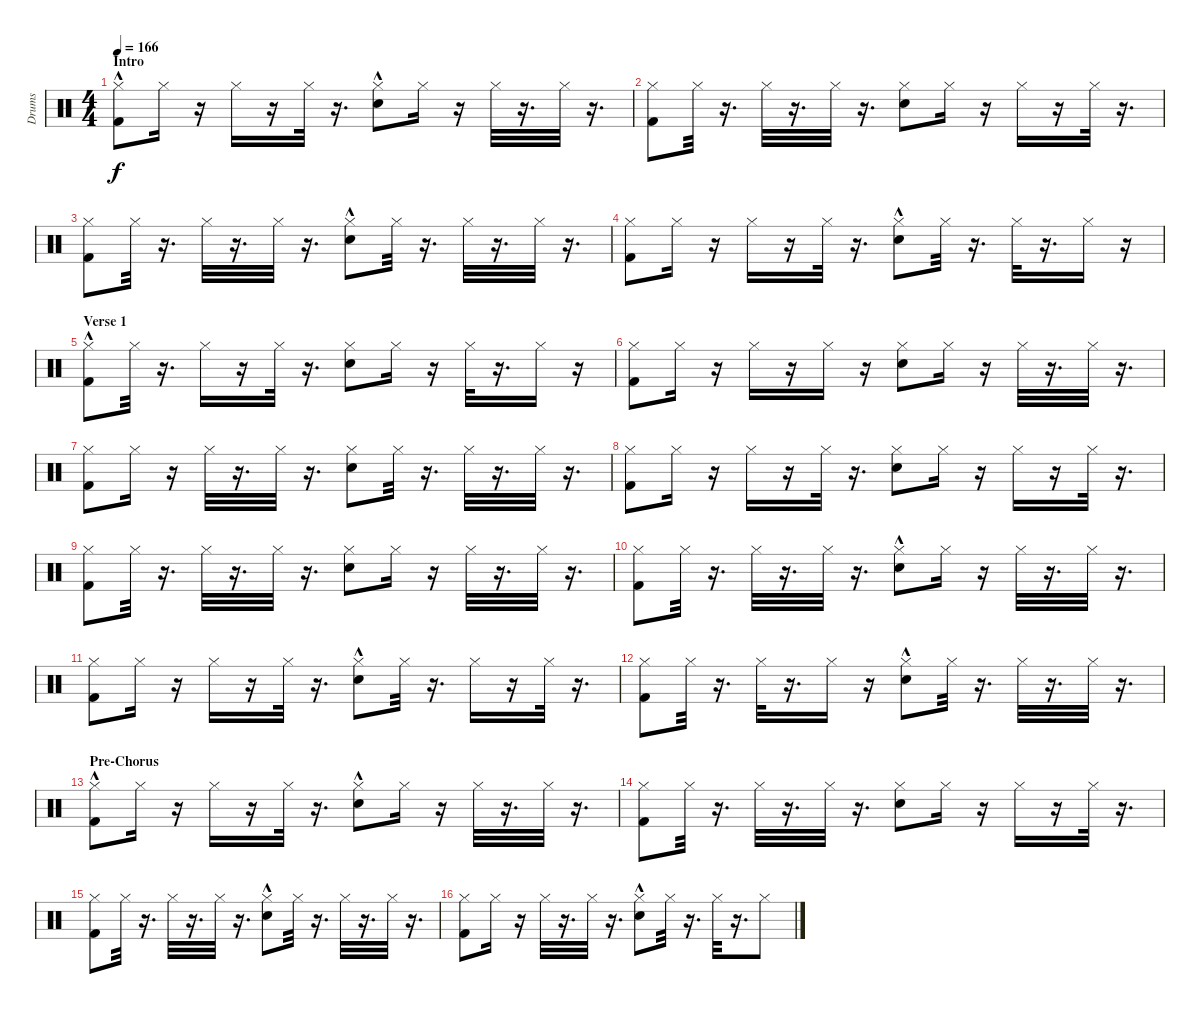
\track ("Drums" "Drums") {instrument percussion}
\staff {score}
\articulation defaults
\ts (4 4)
\section ("" "Intro")
\tempo 166
\clef neutral
\ks c
("Kick (hit) 2"{hac} "Hi-Hat (closed)").8{dy f} "Hi-Hat (closed)".16 r.16 "Hi-Hat (closed)".16 r.16 "Hi-Hat (closed)".32 r.16{d} ("Hi-Hat (closed)" "Snare (hit) 2"{hac}).8 "Hi-Hat (closed)".16 r.16 "Hi-Hat (closed)".32 r.16{d} "Hi-Hat (closed)".32 r.16{d} |
("Kick (hit) 2" "Hi-Hat (closed)").8 "Hi-Hat (closed)".32 r.16{d} "Hi-Hat (closed)".32 r.16{d} "Hi-Hat (closed)".32 r.16{d} ("Hi-Hat (closed)" "Snare (hit) 2").8 "Hi-Hat (closed)".16 r.16 "Hi-Hat (closed)".16 r.16 "Hi-Hat (closed)".32 r.16{d} |
("Kick (hit) 2" "Hi-Hat (closed)").8 "Hi-Hat (closed)".32 r.16{d} "Hi-Hat (closed)".32 r.16{d} "Hi-Hat (closed)".32 r.16{d} ("Hi-Hat (closed)" "Snare (hit) 2"{hac}).8 "Hi-Hat (closed)".32 r.16{d} "Hi-Hat (closed)".32 r.16{d} "Hi-Hat (closed)".32 r.16{d} |
("Kick (hit) 2" "Hi-Hat (closed)").8 "Hi-Hat (closed)".16 r.16 "Hi-Hat (closed)".16 r.16 "Hi-Hat (closed)".32 r.16{d} ("Hi-Hat (closed)" "Snare (hit) 2"{hac}).8 "Hi-Hat (closed)".32 r.16{d} "Hi-Hat (closed)".32 r.16{d} "Hi-Hat (closed)".16 r.16 |
\section ("" "Verse 1")
("Kick (hit) 2"{hac} "Hi-Hat (closed)").8 "Hi-Hat (closed)".32 r.16{d} "Hi-Hat (closed)".16 r.16 "Hi-Hat (closed)".32 r.16{d} ("Hi-Hat (closed)" "Snare (hit) 2").8 "Hi-Hat (closed)".16 r.16 "Hi-Hat (closed)".32 r.16{d} "Hi-Hat (closed)".16 r.16 |
("Kick (hit) 2" "Hi-Hat (closed)").8 "Hi-Hat (closed)".16 r.16 "Hi-Hat (closed)".16 r.16 "Hi-Hat (closed)".16 r.16 ("Hi-Hat (closed)" "Snare (hit) 2").8 "Hi-Hat (closed)".16 r.16 "Hi-Hat (closed)".32 r.16{d} "Hi-Hat (closed)".32 r.16{d} |
("Kick (hit) 2" "Hi-Hat (closed)").8 "Hi-Hat (closed)".16 r.16 "Hi-Hat (closed)".32 r.16{d} "Hi-Hat (closed)".32 r.16{d} ("Hi-Hat (closed)" "Snare (hit) 2").8 "Hi-Hat (closed)".32 r.16{d} "Hi-Hat (closed)".32 r.16{d} "Hi-Hat (closed)".32 r.16{d} |
("Kick (hit) 2" "Hi-Hat (closed)").8 "Hi-Hat (closed)".16 r.16 "Hi-Hat (closed)".16 r.16 "Hi-Hat (closed)".32 r.16{d} ("Hi-Hat (closed)" "Snare (hit) 2").8 "Hi-Hat (closed)".16 r.16 "Hi-Hat (closed)".16 r.16 "Hi-Hat (closed)".32 r.16{d} |
("Kick (hit) 2" "Hi-Hat (closed)").8 "Hi-Hat (closed)".32 r.16{d} "Hi-Hat (closed)".32 r.16{d} "Hi-Hat (closed)".32 r.16{d} ("Hi-Hat (closed)" "Snare (hit) 2").8 "Hi-Hat (closed)".16 r.16 "Hi-Hat (closed)".32 r.16{d} "Hi-Hat (closed)".32 r.16{d} |
("Kick (hit) 2" "Hi-Hat (closed)").8 "Hi-Hat (closed)".32 r.16{d} "Hi-Hat (closed)".32 r.16{d} "Hi-Hat (closed)".32 r.16{d} ("Hi-Hat (closed)" "Snare (hit) 2"{hac}).8 "Hi-Hat (closed)".16 r.16 "Hi-Hat (closed)".32 r.16{d} "Hi-Hat (closed)".32 r.16{d} |
("Kick (hit) 2" "Hi-Hat (closed)").8 "Hi-Hat (closed)".16 r.16 "Hi-Hat (closed)".16 r.16 "Hi-Hat (closed)".32 r.16{d} ("Hi-Hat (closed)" "Snare (hit) 2"{hac}).8 "Hi-Hat (closed)".32 r.16{d} "Hi-Hat (closed)".16 r.16 "Hi-Hat (closed)".32 r.16{d} |
("Kick (hit) 2" "Hi-Hat (closed)").8 "Hi-Hat (closed)".32 r.16{d} "Hi-Hat (closed)".32 r.16{d} "Hi-Hat (closed)".16 r.16 ("Hi-Hat (closed)" "Snare (hit) 2"{hac}).8 "Hi-Hat (closed)".32 r.16{d} "Hi-Hat (closed)".32 r.16{d} "Hi-Hat (closed)".32 r.16{d} |
\section ("" "Pre-Chorus")
("Kick (hit) 2"{hac} "Hi-Hat (closed)").8 "Hi-Hat (closed)".16 r.16 "Hi-Hat (closed)".16 r.16 "Hi-Hat (closed)".32 r.16{d} ("Hi-Hat (closed)" "Snare (hit) 2"{hac}).8 "Hi-Hat (closed)".16 r.16 "Hi-Hat (closed)".32 r.16{d} "Hi-Hat (closed)".32 r.16{d} |
("Kick (hit) 2" "Hi-Hat (closed)").8 "Hi-Hat (closed)".32 r.16{d} "Hi-Hat (closed)".32 r.16{d} "Hi-Hat (closed)".32 r.16{d} ("Hi-Hat (closed)" "Snare (hit) 2").8 "Hi-Hat (closed)".16 r.16 "Hi-Hat (closed)".16 r.16 "Hi-Hat (closed)".32 r.16{d} |
("Kick (hit) 2" "Hi-Hat (closed)").8 "Hi-Hat (closed)".32 r.16{d} "Hi-Hat (closed)".32 r.16{d} "Hi-Hat (closed)".32 r.16{d} ("Hi-Hat (closed)" "Snare (hit) 2"{hac}).8 "Hi-Hat (closed)".32 r.16{d} "Hi-Hat (closed)".32 r.16{d} "Hi-Hat (closed)".32 r.16{d} |
("Kick (hit) 2" "Hi-Hat (closed)").8 "Hi-Hat (closed)".16 r.16 "Hi-Hat (closed)".32 r.16{d} "Hi-Hat (closed)".32 r.16{d} ("Hi-Hat (closed)" "Snare (hit) 2"{hac}).8 "Hi-Hat (closed)".32 r.16{d} "Hi-Hat (closed)".32 r.16{d} "Hi-Hat (closed)".8
